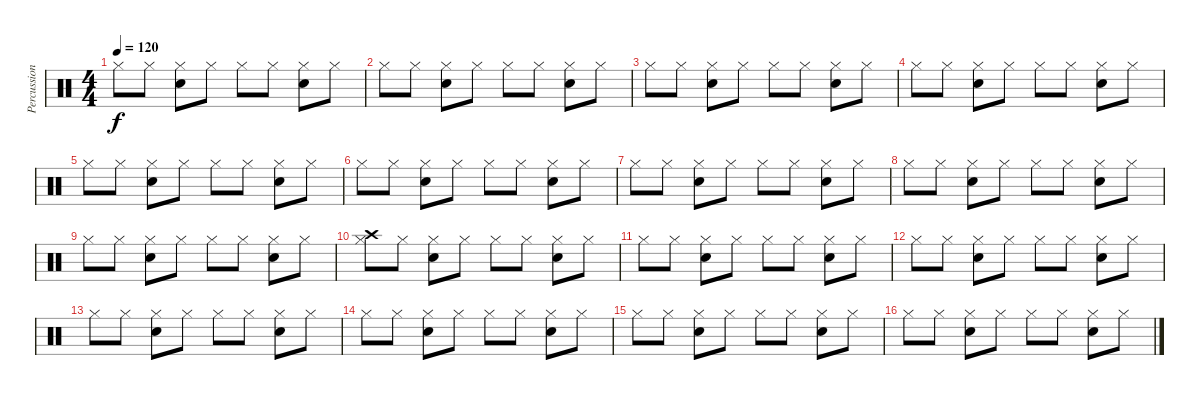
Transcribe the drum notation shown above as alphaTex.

\track ("Percussion      " "Percussion") {instrument percussion}
\staff {score}
\articulation defaults
\ts (4 4)
\tempo 120
\clef neutral
\ks c "Hi-Hat (closed)".8{dy f} "Hi-Hat (closed)".8
("Hi-Hat (closed)" "Snare (hit) 2").8 "Hi-Hat (closed)".8 "Hi-Hat (closed)".8 "Hi-Hat (closed)".8 ("Hi-Hat (closed)" "Snare (hit) 2").8 "Hi-Hat (closed)".8 |
"Hi-Hat (closed)".8 "Hi-Hat (closed)".8 ("Hi-Hat (closed)" "Snare (hit) 2").8 "Hi-Hat (closed)".8 "Hi-Hat (closed)".8 "Hi-Hat (closed)".8 ("Hi-Hat (closed)" "Snare (hit) 2").8 "Hi-Hat (closed)".8 |
"Hi-Hat (closed)".8 "Hi-Hat (closed)".8 ("Hi-Hat (closed)" "Snare (hit) 2").8 "Hi-Hat (closed)".8 "Hi-Hat (closed)".8 "Hi-Hat (closed)".8 ("Hi-Hat (closed)" "Snare (hit) 2").8 "Hi-Hat (closed)".8 |
"Hi-Hat (closed)".8 "Hi-Hat (closed)".8 ("Hi-Hat (closed)" "Snare (hit) 2").8 "Hi-Hat (closed)".8 "Hi-Hat (closed)".8 "Hi-Hat (closed)".8 ("Hi-Hat (closed)" "Snare (hit) 2").8 "Hi-Hat (closed)".8 |
"Hi-Hat (closed)".8 "Hi-Hat (closed)".8 ("Hi-Hat (closed)" "Snare (hit) 2").8 "Hi-Hat (closed)".8 "Hi-Hat (closed)".8 "Hi-Hat (closed)".8 ("Hi-Hat (closed)" "Snare (hit) 2").8 "Hi-Hat (closed)".8 |
"Hi-Hat (closed)".8 "Hi-Hat (closed)".8 ("Hi-Hat (closed)" "Snare (hit) 2").8 "Hi-Hat (closed)".8 "Hi-Hat (closed)".8 "Hi-Hat (closed)".8 ("Hi-Hat (closed)" "Snare (hit) 2").8 "Hi-Hat (closed)".8 |
"Hi-Hat (closed)".8 "Hi-Hat (closed)".8 ("Hi-Hat (closed)" "Snare (hit) 2").8 "Hi-Hat (closed)".8 "Hi-Hat (closed)".8 "Hi-Hat (closed)".8 ("Hi-Hat (closed)" "Snare (hit) 2").8 "Hi-Hat (closed)".8 |
"Hi-Hat (closed)".8 "Hi-Hat (closed)".8 ("Hi-Hat (closed)" "Snare (hit) 2").8 "Hi-Hat (closed)".8 "Hi-Hat (closed)".8 "Hi-Hat (closed)".8 ("Hi-Hat (closed)" "Snare (hit) 2").8 "Hi-Hat (closed)".8 |
"Hi-Hat (closed)".8 "Hi-Hat (closed)".8 ("Hi-Hat (closed)" "Snare (hit) 2").8 "Hi-Hat (closed)".8 "Hi-Hat (closed)".8 "Hi-Hat (closed)".8 ("Hi-Hat (closed)" "Snare (hit) 2").8 "Hi-Hat (closed)".8 |
("Crash high (hit)" "Hi-Hat (closed)").8 "Hi-Hat (closed)".8 ("Hi-Hat (closed)" "Snare (hit) 2").8 "Hi-Hat (closed)".8 "Hi-Hat (closed)".8 "Hi-Hat (closed)".8 ("Hi-Hat (closed)" "Snare (hit) 2").8 "Hi-Hat (closed)".8 |
"Hi-Hat (closed)".8 "Hi-Hat (closed)".8 ("Hi-Hat (closed)" "Snare (hit) 2").8 "Hi-Hat (closed)".8 "Hi-Hat (closed)".8 "Hi-Hat (closed)".8 ("Hi-Hat (closed)" "Snare (hit) 2").8 "Hi-Hat (closed)".8 |
"Hi-Hat (closed)".8 "Hi-Hat (closed)".8 ("Hi-Hat (closed)" "Snare (hit) 2").8 "Hi-Hat (closed)".8 "Hi-Hat (closed)".8 "Hi-Hat (closed)".8 ("Hi-Hat (closed)" "Snare (hit) 2").8 "Hi-Hat (closed)".8 |
"Hi-Hat (closed)".8 "Hi-Hat (closed)".8 ("Hi-Hat (closed)" "Snare (hit) 2").8 "Hi-Hat (closed)".8 "Hi-Hat (closed)".8 "Hi-Hat (closed)".8 ("Hi-Hat (closed)" "Snare (hit) 2").8 "Hi-Hat (closed)".8 |
"Hi-Hat (closed)".8 "Hi-Hat (closed)".8 ("Hi-Hat (closed)" "Snare (hit) 2").8 "Hi-Hat (closed)".8 "Hi-Hat (closed)".8 "Hi-Hat (closed)".8 ("Hi-Hat (closed)" "Snare (hit) 2").8 "Hi-Hat (closed)".8 |
"Hi-Hat (closed)".8 "Hi-Hat (closed)".8 ("Hi-Hat (closed)" "Snare (hit) 2").8 "Hi-Hat (closed)".8 "Hi-Hat (closed)".8 "Hi-Hat (closed)".8 ("Hi-Hat (closed)" "Snare (hit) 2").8 "Hi-Hat (closed)".8 |
"Hi-Hat (closed)".8 "Hi-Hat (closed)".8 ("Hi-Hat (closed)" "Snare (hit) 2").8 "Hi-Hat (closed)".8 "Hi-Hat (closed)".8 "Hi-Hat (closed)".8 ("Hi-Hat (closed)" "Snare (hit) 2").8 "Hi-Hat (closed)".8
